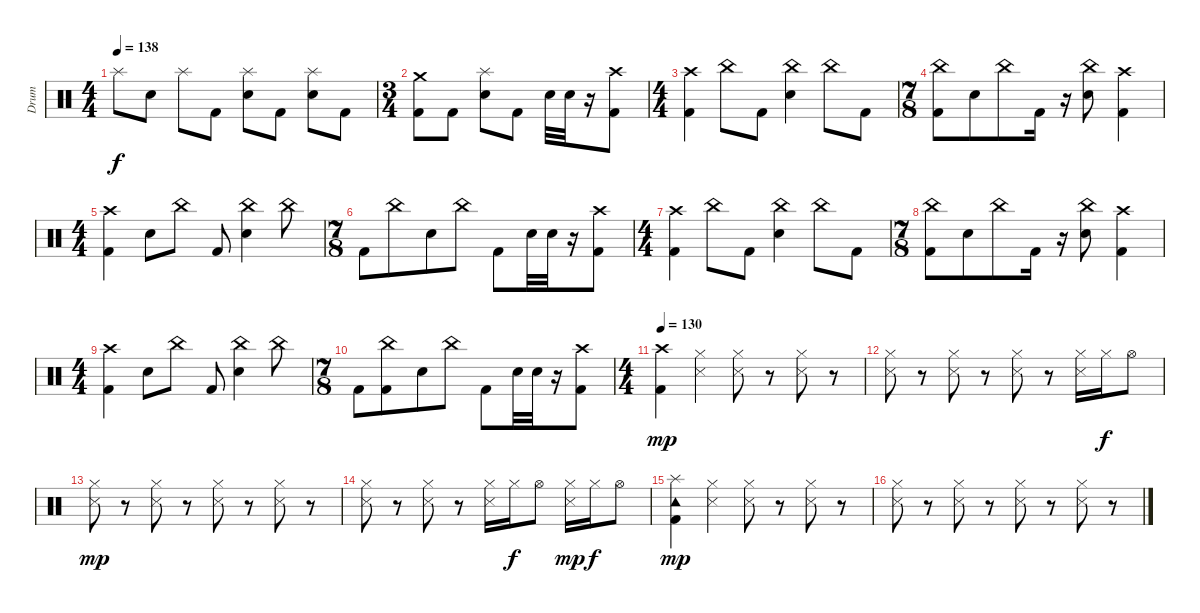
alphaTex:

\track ("Drum" "Drum") {instrument percussion}
\staff {score}
\articulation defaults
\ts (4 4)
\tempo 138
\clef neutral
\ks c "Splash (hit)".8{dy f} "Electric Snare (hit)".8 "Splash (hit)".8 "Kick (hit) 2".8
("Splash (hit)" "Electric Snare (hit)").8 "Kick (hit) 2".8 ("Splash (hit)" "Electric Snare (hit)").8 "Kick (hit) 2".8 |
\ts (3 4)
("Kick (hit) 2" "Crash medium (hit)").8 "Kick (hit) 2".8 ("Electric Snare (hit)" "Splash (hit)").8 "Kick (hit) 2".8 "Electric Snare (hit)".32 "Electric Snare (hit)".32 r.16 ("Kick (hit) 2" "Crash high (hit)").8 |
\ts (4 4)
("Kick (hit) 2" "Crash high (hit)").4 "China (hit)".8 "Kick (hit) 2".8 ("Electric Snare (hit)" "China (hit)").4 "China (hit)".8 "Kick (hit) 2".8 |
\ts (7 8)
("Kick (hit) 2" "China (hit)").8 "Electric Snare (hit)".8 "China (hit)".8 "Kick (hit) 2".16 r.16 ("Electric Snare (hit)" "China (hit)").8 ("Kick (hit) 2" "Crash high (hit)").4 |
\ts (4 4)
("Crash high (hit)" "Kick (hit) 2").4 "Electric Snare (hit)".8 "China (hit)".8 "Kick (hit) 2".8 ("China (hit)" "Electric Snare (hit)").4 "China (hit)".8 |
\ts (7 8)
"Kick (hit) 2".8 "China (hit)".8 "Electric Snare (hit)".8 "China (hit)".8 "Kick (hit) 2".8 "Electric Snare (hit)".32 "Electric Snare (hit)".32 r.16 ("Kick (hit) 2" "Crash high (hit)").8 |
\ts (4 4)
("Crash high (hit)" "Kick (hit) 2").4 "China (hit)".8 "Kick (hit) 2".8 ("Electric Snare (hit)" "China (hit)").4 "China (hit)".8 "Kick (hit) 2".8 |
\ts (7 8)
("Kick (hit) 2" "China (hit)").8 "Electric Snare (hit)".8 "China (hit)".8 "Kick (hit) 2".16 r.16 ("Electric Snare (hit)" "China (hit)").8 ("Kick (hit) 2" "Crash high (hit)").4 |
\ts (4 4)
("Crash high (hit)" "Kick (hit) 2").4 "Electric Snare (hit)".8 "China (hit)".8 "Kick (hit) 2".8 ("China (hit)" "Electric Snare (hit)").4 "China (hit)".8 |
\ts (7 8)
"Kick (hit) 2".8 ("China (hit)" "Kick (hit) 2").8 "Electric Snare (hit)".8 "China (hit)".8 "Kick (hit) 2".8 "Electric Snare (hit)".32 "Electric Snare (hit)".32 r.16 ("Kick (hit) 2" "Crash high (hit)").8 |
\ts (4 4)
\tempo 130
("Crash high (hit)" "Kick (hit) 2").4{dy mp} ("Snare (side stick) 3" "Hi-Hat (closed)").4 ("Snare (side stick) 3" "Hi-Hat (closed)").8 r.8 ("Snare (side stick) 3" "Hi-Hat (closed)").8 r.8 |
("Hi-Hat (closed)" "Snare (side stick) 3").8 r.8 ("Snare (side stick) 3" "Hi-Hat (closed)").8 r.8 ("Hi-Hat (closed)" "Snare (side stick) 3").8 r.8 ("Snare (side stick) 3" "Hi-Hat (closed)").16 "Hi-Hat (closed)".16{dy f} "Hi-Hat (open)".8 |
("Snare (side stick) 3" "Hi-Hat (closed)").8{dy mp} r.8 ("Snare (side stick) 3" "Hi-Hat (closed)").8 r.8 ("Snare (side stick) 3" "Hi-Hat (closed)").8 r.8 ("Snare (side stick) 3" "Hi-Hat (closed)").8 r.8 |
("Hi-Hat (closed)" "Snare (side stick) 3").8 r.8 ("Hi-Hat (closed)" "Snare (side stick) 3").8 r.8 ("Hi-Hat (closed)" "Snare (side stick) 3").16 "Hi-Hat (closed)".16{dy f} "Hi-Hat (open)".8 ("Hi-Hat (closed)" "Snare (side stick) 3").16{dy mp} "Hi-Hat (closed)".16{dy f} "Hi-Hat (open)".8 |
("Tambourine (hit)" "Splash (hit)" "Kick (hit) 2").4{dy mp} ("Snare (side stick) 3" "Hi-Hat (closed)").4 ("Snare (side stick) 3" "Hi-Hat (closed)").8 r.8 ("Snare (side stick) 3" "Hi-Hat (closed)").8 r.8 |
("Hi-Hat (closed)" "Snare (side stick) 3").8 r.8 ("Snare (side stick) 3" "Hi-Hat (closed)").8 r.8 ("Hi-Hat (closed)" "Snare (side stick) 3").8 r.8 ("Snare (side stick) 3" "Hi-Hat (closed)").8 r.8
